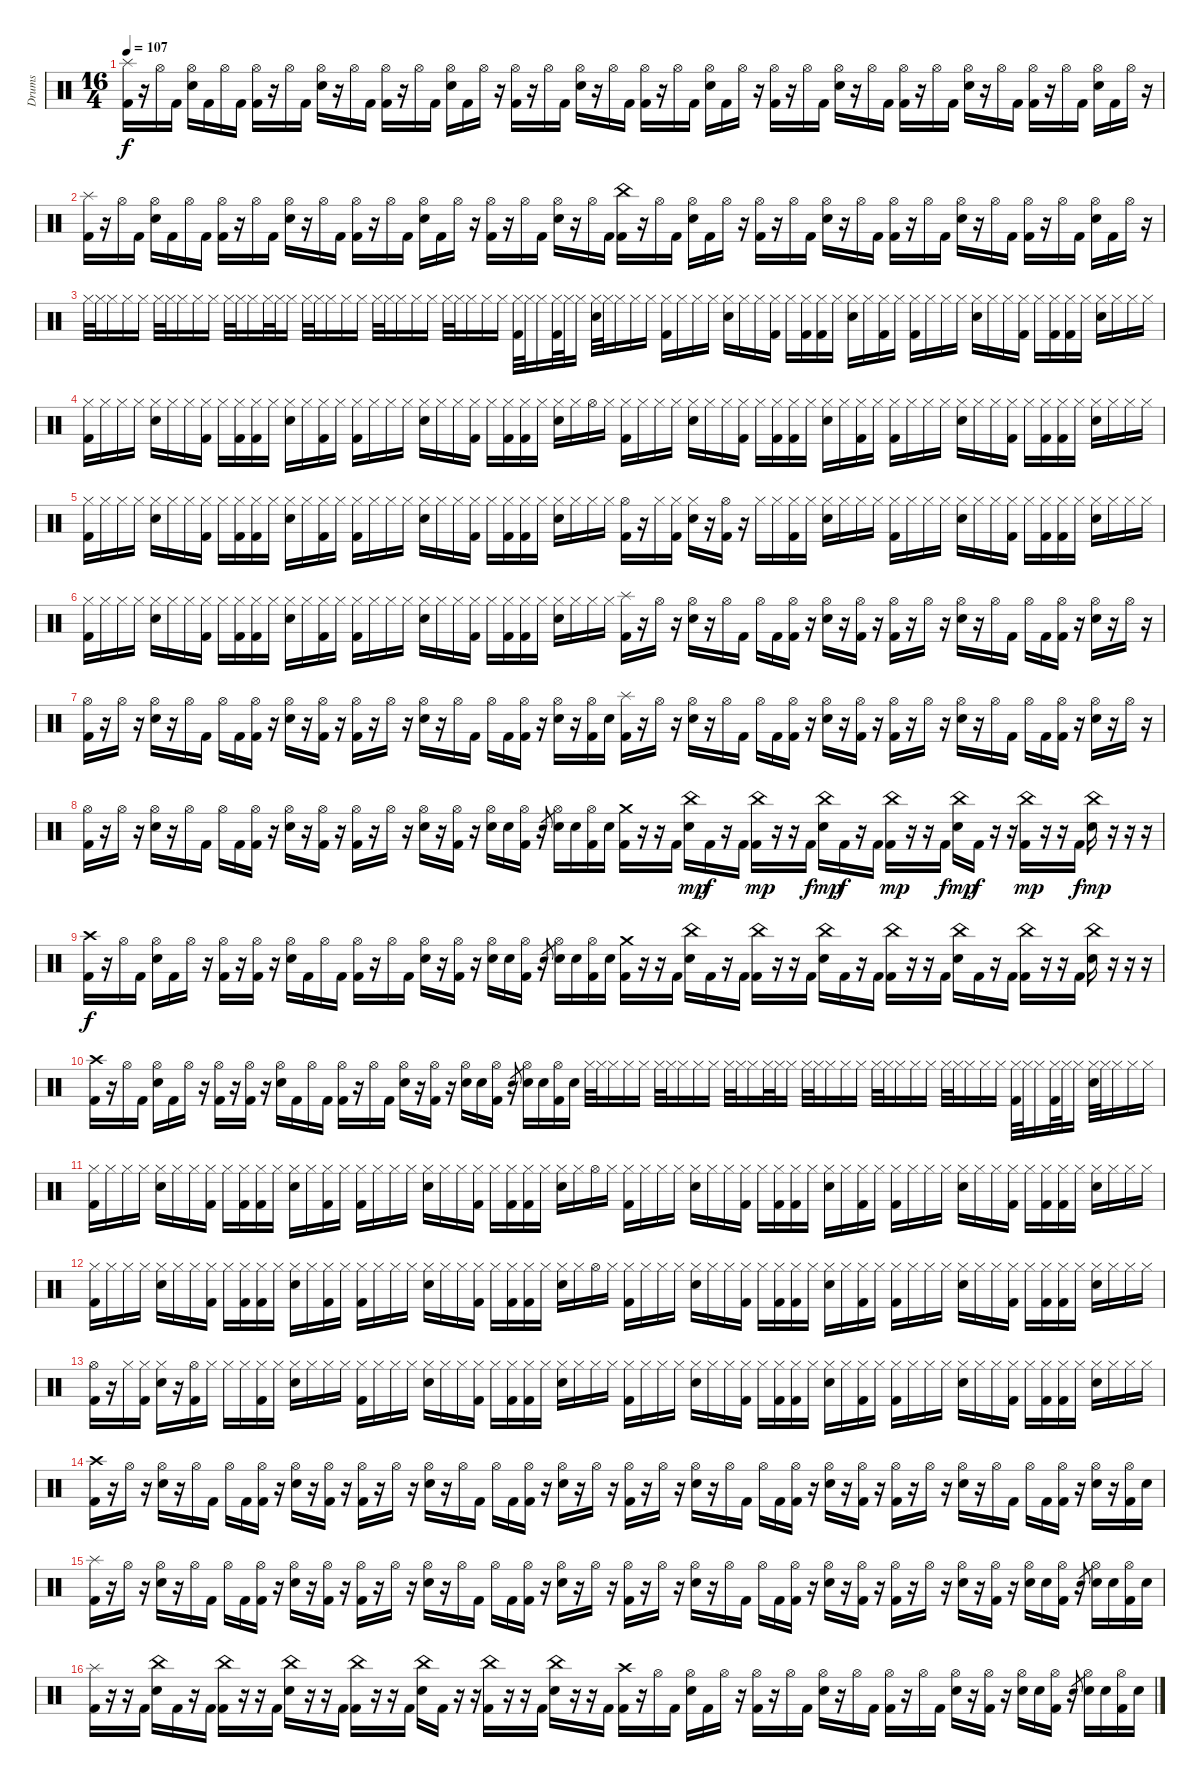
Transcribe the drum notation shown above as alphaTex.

\track ("Drums" "Drums") {instrument percussion}
\staff {score}
\articulation defaults
\ts (16 4)
\tempo 107
\clef neutral
\ks c
("Splash (hit)" "Kick (hit) 2").16{dy f} r.16 "Hi-Hat (open)".16 "Kick (hit) 2".16 ("Hi-Hat (open)" "Electric Snare (hit)").16 "Kick (hit) 2".16 "Hi-Hat (open)".16 "Kick (hit) 2".16 ("Hi-Hat (open)" "Kick (hit) 2").16 r.16 "Hi-Hat (open)".16 "Kick (hit) 2".16 ("Hi-Hat (open)" "Electric Snare (hit)").16 r.16 "Hi-Hat (open)".16 "Kick (hit) 2".16 ("Hi-Hat (open)" "Kick (hit) 2").16 r.16 "Hi-Hat (open)".16 "Kick (hit) 2".16 ("Hi-Hat (open)" "Electric Snare (hit)").16 "Kick (hit) 2".16 "Hi-Hat (open)".16 r.16 ("Hi-Hat (open)" "Kick (hit) 2").16 r.16 "Hi-Hat (open)".16 "Kick (hit) 2".16 ("Hi-Hat (open)" "Electric Snare (hit)").16 r.16 "Hi-Hat (open)".16 "Kick (hit) 2".16 ("Hi-Hat (open)" "Kick (hit) 2").16 r.16 "Hi-Hat (open)".16 "Kick (hit) 2".16 ("Hi-Hat (open)" "Electric Snare (hit)").16 "Kick (hit) 2".16 "Hi-Hat (open)".16 r.16 ("Hi-Hat (open)" "Kick (hit) 2").16 r.16 "Hi-Hat (open)".16 "Kick (hit) 2".16 ("Hi-Hat (open)" "Electric Snare (hit)").16 r.16 "Hi-Hat (open)".16 "Kick (hit) 2".16 ("Hi-Hat (open)" "Kick (hit) 2").16 r.16 "Hi-Hat (open)".16 "Kick (hit) 2".16 ("Hi-Hat (open)" "Electric Snare (hit)").16 r.16 "Hi-Hat (open)".16 "Kick (hit) 2".16 ("Hi-Hat (open)" "Kick (hit) 2").16 r.16 "Hi-Hat (open)".16 "Kick (hit) 2".16 ("Hi-Hat (open)" "Electric Snare (hit)").16 "Kick (hit) 2".16 "Hi-Hat (open)".16 r.16 |
("Splash (hit)" "Kick (hit) 2").16 r.16 "Hi-Hat (open)".16 "Kick (hit) 2".16 ("Hi-Hat (open)" "Electric Snare (hit)").16 "Kick (hit) 2".16 "Hi-Hat (open)".16 "Kick (hit) 2".16 ("Hi-Hat (open)" "Kick (hit) 2").16 r.16 "Hi-Hat (open)".16 "Kick (hit) 2".16 ("Hi-Hat (open)" "Electric Snare (hit)").16 r.16 "Hi-Hat (open)".16 "Kick (hit) 2".16 ("Hi-Hat (open)" "Kick (hit) 2").16 r.16 "Hi-Hat (open)".16 "Kick (hit) 2".16 ("Hi-Hat (open)" "Electric Snare (hit)").16 "Kick (hit) 2".16 "Hi-Hat (open)".16 r.16 ("Hi-Hat (open)" "Kick (hit) 2").16 r.16 "Hi-Hat (open)".16 "Kick (hit) 2".16 ("Hi-Hat (open)" "Electric Snare (hit)").16 r.16 "Hi-Hat (open)".16 "Kick (hit) 2".16 ("China (hit)" "Kick (hit) 2").16 r.16 "Hi-Hat (open)".16 "Kick (hit) 2".16 ("Hi-Hat (open)" "Electric Snare (hit)").16 "Kick (hit) 2".16 "Hi-Hat (open)".16 r.16 ("Hi-Hat (open)" "Kick (hit) 2").16 r.16 "Hi-Hat (open)".16 "Kick (hit) 2".16 ("Hi-Hat (open)" "Electric Snare (hit)").16 r.16 "Hi-Hat (open)".16 "Kick (hit) 2".16 ("Hi-Hat (open)" "Kick (hit) 2").16 r.16 "Hi-Hat (open)".16 "Kick (hit) 2".16 ("Hi-Hat (open)" "Electric Snare (hit)").16 r.16 "Hi-Hat (open)".16 "Kick (hit) 2".16 ("Hi-Hat (open)" "Kick (hit) 2").16 r.16 "Hi-Hat (open)".16 "Kick (hit) 2".16 ("Hi-Hat (open)" "Electric Snare (hit)").16 "Kick (hit) 2".16 "Hi-Hat (open)".16 r.16 |
"Hi-Hat (closed)".32 "Hi-Hat (closed)".32 "Hi-Hat (closed)".16 "Hi-Hat (closed)".16 "Hi-Hat (closed)".16 "Hi-Hat (closed)".32 "Hi-Hat (closed)".32 "Hi-Hat (closed)".16 "Hi-Hat (closed)".16 "Hi-Hat (closed)".16 "Hi-Hat (closed)".32 "Hi-Hat (closed)".32 "Hi-Hat (closed)".16 "Hi-Hat (closed)".32 "Hi-Hat (closed)".32 "Hi-Hat (closed)".16 "Hi-Hat (closed)".32 "Hi-Hat (closed)".32 "Hi-Hat (closed)".16 "Hi-Hat (closed)".16 "Hi-Hat (closed)".16 "Hi-Hat (closed)".32 "Hi-Hat (closed)".32 "Hi-Hat (closed)".16 "Hi-Hat (closed)".16 "Hi-Hat (closed)".16 "Hi-Hat (closed)".32 "Hi-Hat (closed)".32 "Hi-Hat (closed)".16 "Hi-Hat (closed)".16 "Hi-Hat (closed)".16 ("Hi-Hat (closed)" "Kick (hit) 2").32 "Hi-Hat (closed)".32 "Hi-Hat (closed)".16 ("Hi-Hat (closed)" "Kick (hit) 2").32 "Hi-Hat (closed)".32 "Hi-Hat (closed)".16 ("Hi-Hat (closed)" "Electric Snare (hit)").32 "Hi-Hat (closed)".32 "Hi-Hat (closed)".16 "Hi-Hat (closed)".16 "Hi-Hat (closed)".16 ("Hi-Hat (closed)" "Kick (hit) 2").16 "Hi-Hat (closed)".16 "Hi-Hat (closed)".16 "Hi-Hat (closed)".16 ("Hi-Hat (closed)" "Electric Snare (hit)").16 "Hi-Hat (closed)".16 "Hi-Hat (closed)".16 ("Hi-Hat (closed)" "Kick (hit) 2").16 "Hi-Hat (closed)".16 ("Hi-Hat (closed)" "Kick (hit) 2").16 ("Hi-Hat (closed)" "Kick (hit) 2").16 "Hi-Hat (closed)".16 ("Hi-Hat (closed)" "Electric Snare (hit)").16 "Hi-Hat (closed)".16 ("Hi-Hat (closed)" "Kick (hit) 2").16 "Hi-Hat (closed)".16 ("Hi-Hat (closed)" "Kick (hit) 2").16 "Hi-Hat (closed)".16 "Hi-Hat (closed)".16 "Hi-Hat (closed)".16 ("Hi-Hat (closed)" "Electric Snare (hit)").16 "Hi-Hat (closed)".16 "Hi-Hat (closed)".16 ("Hi-Hat (closed)" "Kick (hit) 2").16 "Hi-Hat (closed)".16 ("Hi-Hat (closed)" "Kick (hit) 2").16 ("Hi-Hat (closed)" "Kick (hit) 2").16 "Hi-Hat (closed)".16 ("Hi-Hat (closed)" "Electric Snare (hit)").16 "Hi-Hat (closed)".16 "Hi-Hat (closed)".16 "Hi-Hat (closed)".16 |
("Hi-Hat (closed)" "Kick (hit) 2").16 "Hi-Hat (closed)".16 "Hi-Hat (closed)".16 "Hi-Hat (closed)".16 ("Hi-Hat (closed)" "Electric Snare (hit)").16 "Hi-Hat (closed)".16 "Hi-Hat (closed)".16 ("Hi-Hat (closed)" "Kick (hit) 2").16 "Hi-Hat (closed)".16 ("Hi-Hat (closed)" "Kick (hit) 2").16 ("Hi-Hat (closed)" "Kick (hit) 2").16 "Hi-Hat (closed)".16 ("Hi-Hat (closed)" "Electric Snare (hit)").16 "Hi-Hat (closed)".16 ("Hi-Hat (closed)" "Kick (hit) 2").16 "Hi-Hat (closed)".16 ("Hi-Hat (closed)" "Kick (hit) 2").16 "Hi-Hat (closed)".16 "Hi-Hat (closed)".16 "Hi-Hat (closed)".16 ("Hi-Hat (closed)" "Electric Snare (hit)").16 "Hi-Hat (closed)".16 "Hi-Hat (closed)".16 ("Hi-Hat (closed)" "Kick (hit) 2").16 "Hi-Hat (closed)".16 ("Hi-Hat (closed)" "Kick (hit) 2").16 ("Hi-Hat (closed)" "Kick (hit) 2").16 "Hi-Hat (closed)".16 ("Hi-Hat (closed)" "Electric Snare (hit)").16 "Hi-Hat (closed)".16 "Hi-Hat (open)".16 "Hi-Hat (closed)".16 ("Hi-Hat (closed)" "Kick (hit) 2").16 "Hi-Hat (closed)".16 "Hi-Hat (closed)".16 "Hi-Hat (closed)".16 ("Hi-Hat (closed)" "Electric Snare (hit)").16 "Hi-Hat (closed)".16 "Hi-Hat (closed)".16 ("Hi-Hat (closed)" "Kick (hit) 2").16 "Hi-Hat (closed)".16 ("Hi-Hat (closed)" "Kick (hit) 2").16 ("Hi-Hat (closed)" "Kick (hit) 2").16 "Hi-Hat (closed)".16 ("Hi-Hat (closed)" "Electric Snare (hit)").16 "Hi-Hat (closed)".16 ("Hi-Hat (closed)" "Kick (hit) 2").16 "Hi-Hat (closed)".16 ("Hi-Hat (closed)" "Kick (hit) 2").16 "Hi-Hat (closed)".16 "Hi-Hat (closed)".16 "Hi-Hat (closed)".16 ("Hi-Hat (closed)" "Electric Snare (hit)").16 "Hi-Hat (closed)".16 "Hi-Hat (closed)".16 ("Hi-Hat (closed)" "Kick (hit) 2").16 "Hi-Hat (closed)".16 ("Hi-Hat (closed)" "Kick (hit) 2").16 ("Hi-Hat (closed)" "Kick (hit) 2").16 "Hi-Hat (closed)".16 ("Hi-Hat (closed)" "Electric Snare (hit)").16 "Hi-Hat (closed)".16 "Hi-Hat (closed)".16 "Hi-Hat (closed)".16 |
("Hi-Hat (closed)" "Kick (hit) 2").16 "Hi-Hat (closed)".16 "Hi-Hat (closed)".16 "Hi-Hat (closed)".16 ("Hi-Hat (closed)" "Electric Snare (hit)").16 "Hi-Hat (closed)".16 "Hi-Hat (closed)".16 ("Hi-Hat (closed)" "Kick (hit) 2").16 "Hi-Hat (closed)".16 ("Hi-Hat (closed)" "Kick (hit) 2").16 ("Hi-Hat (closed)" "Kick (hit) 2").16 "Hi-Hat (closed)".16 ("Hi-Hat (closed)" "Electric Snare (hit)").16 "Hi-Hat (closed)".16 ("Hi-Hat (closed)" "Kick (hit) 2").16 "Hi-Hat (closed)".16 ("Hi-Hat (closed)" "Kick (hit) 2").16 "Hi-Hat (closed)".16 "Hi-Hat (closed)".16 "Hi-Hat (closed)".16 ("Hi-Hat (closed)" "Electric Snare (hit)").16 "Hi-Hat (closed)".16 "Hi-Hat (closed)".16 ("Hi-Hat (closed)" "Kick (hit) 2").16 "Hi-Hat (closed)".16 ("Hi-Hat (closed)" "Kick (hit) 2").16 ("Hi-Hat (closed)" "Kick (hit) 2").16 "Hi-Hat (closed)".16 ("Hi-Hat (closed)" "Electric Snare (hit)").16 "Hi-Hat (closed)".16 "Hi-Hat (closed)".16 "Hi-Hat (closed)".16 ("Hi-Hat (open)" "Kick (hit) 2").16 r.16 "Hi-Hat (closed)".16 ("Hi-Hat (closed)" "Kick (hit) 2").16 ("Hi-Hat (closed)" "Electric Snare (hit)").16 r.16 ("Hi-Hat (open)" "Kick (hit) 2").16 r.16 "Hi-Hat (closed)".16 "Hi-Hat (closed)".16 ("Hi-Hat (closed)" "Kick (hit) 2").16 "Hi-Hat (closed)".16 ("Hi-Hat (closed)" "Electric Snare (hit)").16 "Hi-Hat (closed)".16 "Hi-Hat (closed)".16 "Hi-Hat (closed)".16 ("Hi-Hat (closed)" "Kick (hit) 2").16 "Hi-Hat (closed)".16 "Hi-Hat (closed)".16 "Hi-Hat (closed)".16 ("Hi-Hat (closed)" "Electric Snare (hit)").16 "Hi-Hat (closed)".16 "Hi-Hat (closed)".16 ("Hi-Hat (closed)" "Kick (hit) 2").16 "Hi-Hat (closed)".16 ("Hi-Hat (closed)" "Kick (hit) 2").16 ("Hi-Hat (closed)" "Kick (hit) 2").16 "Hi-Hat (closed)".16 ("Hi-Hat (closed)" "Electric Snare (hit)").16 "Hi-Hat (closed)".16 "Hi-Hat (closed)".16 "Hi-Hat (closed)".16 |
("Hi-Hat (closed)" "Kick (hit) 2").16 "Hi-Hat (closed)".16 "Hi-Hat (closed)".16 "Hi-Hat (closed)".16 ("Hi-Hat (closed)" "Electric Snare (hit)").16 "Hi-Hat (closed)".16 "Hi-Hat (closed)".16 ("Hi-Hat (closed)" "Kick (hit) 2").16 "Hi-Hat (closed)".16 ("Hi-Hat (closed)" "Kick (hit) 2").16 ("Hi-Hat (closed)" "Kick (hit) 2").16 "Hi-Hat (closed)".16 ("Hi-Hat (closed)" "Electric Snare (hit)").16 "Hi-Hat (closed)".16 ("Hi-Hat (closed)" "Kick (hit) 2").16 "Hi-Hat (closed)".16 ("Hi-Hat (closed)" "Kick (hit) 2").16 "Hi-Hat (closed)".16 "Hi-Hat (closed)".16 "Hi-Hat (closed)".16 ("Hi-Hat (closed)" "Electric Snare (hit)").16 "Hi-Hat (closed)".16 "Hi-Hat (closed)".16 ("Hi-Hat (closed)" "Kick (hit) 2").16 "Hi-Hat (closed)".16 ("Hi-Hat (closed)" "Kick (hit) 2").16 ("Hi-Hat (closed)" "Kick (hit) 2").16 "Hi-Hat (closed)".16 ("Hi-Hat (closed)" "Electric Snare (hit)").16 "Hi-Hat (closed)".16 "Hi-Hat (closed)".16 "Hi-Hat (closed)".16 ("Splash (hit)" "Kick (hit) 2").16 r.16 "Hi-Hat (open)".16 r.16 ("Hi-Hat (open)" "Electric Snare (hit)").16 r.16 "Hi-Hat (open)".16 "Kick (hit) 2".16 "Hi-Hat (open)".16 "Kick (hit) 2".16 ("Hi-Hat (open)" "Kick (hit) 2").16 r.16 ("Hi-Hat (open)" "Electric Snare (hit)").16 r.16 ("Hi-Hat (open)" "Kick (hit) 2").16 r.16 ("Hi-Hat (open)" "Kick (hit) 2").16 r.16 "Hi-Hat (open)".16 r.16 ("Hi-Hat (open)" "Electric Snare (hit)").16 r.16 "Hi-Hat (open)".16 "Kick (hit) 2".16 "Hi-Hat (open)".16 "Kick (hit) 2".16 ("Hi-Hat (open)" "Kick (hit) 2").16 r.16 ("Hi-Hat (open)" "Electric Snare (hit)").16 r.16 "Hi-Hat (open)".16 r.16 |
("Hi-Hat (open)" "Kick (hit) 2").16 r.16 "Hi-Hat (open)".16 r.16 ("Hi-Hat (open)" "Electric Snare (hit)").16 r.16 "Hi-Hat (open)".16 "Kick (hit) 2".16 "Hi-Hat (open)".16 "Kick (hit) 2".16 ("Hi-Hat (open)" "Kick (hit) 2").16 r.16 ("Hi-Hat (open)" "Electric Snare (hit)").16 r.16 ("Hi-Hat (open)" "Kick (hit) 2").16 r.16 ("Hi-Hat (open)" "Kick (hit) 2").16 r.16 "Hi-Hat (open)".16 r.16 ("Hi-Hat (open)" "Electric Snare (hit)").16 r.16 "Hi-Hat (open)".16 "Kick (hit) 2".16 "Hi-Hat (open)".16 "Kick (hit) 2".16 ("Hi-Hat (open)" "Kick (hit) 2").16 r.16 ("Hi-Hat (open)" "Electric Snare (hit)").16 r.16 ("Hi-Hat (open)" "Kick (hit) 2").16 "Electric Snare (hit)".16 ("Splash (hit)" "Kick (hit) 2").16 r.16 "Hi-Hat (open)".16 r.16 ("Hi-Hat (open)" "Electric Snare (hit)").16 r.16 "Hi-Hat (open)".16 "Kick (hit) 2".16 "Hi-Hat (open)".16 "Kick (hit) 2".16 ("Hi-Hat (open)" "Kick (hit) 2").16 r.16 ("Hi-Hat (open)" "Electric Snare (hit)").16 r.16 ("Hi-Hat (open)" "Kick (hit) 2").16 r.16 ("Hi-Hat (open)" "Kick (hit) 2").16 r.16 "Hi-Hat (open)".16 r.16 ("Hi-Hat (open)" "Electric Snare (hit)").16 r.16 "Hi-Hat (open)".16 "Kick (hit) 2".16 "Hi-Hat (open)".16 "Kick (hit) 2".16 ("Hi-Hat (open)" "Kick (hit) 2").16 r.16 ("Hi-Hat (open)" "Electric Snare (hit)").16 r.16 "Hi-Hat (open)".16 r.16 |
("Hi-Hat (open)" "Kick (hit) 2").16 r.16 "Hi-Hat (open)".16 r.16 ("Hi-Hat (open)" "Electric Snare (hit)").16 r.16 "Hi-Hat (open)".16 "Kick (hit) 2".16 "Hi-Hat (open)".16 "Kick (hit) 2".16 ("Hi-Hat (open)" "Kick (hit) 2").16 r.16 ("Hi-Hat (open)" "Electric Snare (hit)").16 r.16 ("Hi-Hat (open)" "Kick (hit) 2").16 r.16 ("Hi-Hat (open)" "Kick (hit) 2").16 r.16 "Hi-Hat (open)".16 r.16 ("Hi-Hat (open)" "Electric Snare (hit)").16 r.16 ("Hi-Hat (open)" "Kick (hit) 2").16 r.16 ("Hi-Hat (open)" "Electric Snare (hit)").16 "Electric Snare (hit)".16 ("Hi-Hat (open)" "Kick (hit) 2").16 r.16 "Electric Snare (hit)".8{gr} ("Hi-Hat (open)" "Electric Snare (hit)").16 "Electric Snare (hit)".16 ("Hi-Hat (open)" "Kick (hit) 2").16 "Electric Snare (hit)".16 ("Crash medium (hit)" "Kick (hit) 2").16 r.16 r.16 "Kick (hit) 2".16 ("China (hit)" "Electric Snare (hit)").16{dy mp} "Kick (hit) 2".16{dy f} r.16 "Kick (hit) 2".16 ("China (hit)" "Kick (hit) 2").16{dy mp} r.16 r.16 "Kick (hit) 2".16{dy f} ("China (hit)" "Electric Snare (hit)").16{dy mp} "Kick (hit) 2".16{dy f} r.16 "Kick (hit) 2".16 ("China (hit)" "Kick (hit) 2").16{dy mp} r.16 r.16 "Kick (hit) 2".16{dy f} ("China (hit)" "Electric Snare (hit)").16{dy mp} "Kick (hit) 2".16{dy f} r.16 r.16 ("China (hit)" "Kick (hit) 2").16{dy mp} r.16 r.16 "Kick (hit) 2".16{dy f} ("China (hit)" "Electric Snare (hit)").16{dy mp} r.16 r.16 r.16 |
("Crash high (hit)" "Kick (hit) 2").16{dy f} r.16 "Hi-Hat (open)".16 "Kick (hit) 2".16 ("Hi-Hat (open)" "Electric Snare (hit)").16 "Kick (hit) 2".16 "Hi-Hat (open)".16 r.16 ("Hi-Hat (open)" "Kick (hit) 2").16 r.16 ("Hi-Hat (open)" "Kick (hit) 2").16 r.16 ("Hi-Hat (open)" "Electric Snare (hit)").16 "Kick (hit) 2".16 "Hi-Hat (open)".16 "Kick (hit) 2".16 ("Hi-Hat (open)" "Kick (hit) 2").16 r.16 "Hi-Hat (open)".16 "Kick (hit) 2".16 ("Hi-Hat (open)" "Electric Snare (hit)").16 r.16 ("Hi-Hat (open)" "Kick (hit) 2").16 r.16 ("Hi-Hat (open)" "Electric Snare (hit)").16 "Electric Snare (hit)".16 ("Hi-Hat (open)" "Kick (hit) 2").16 r.16 "Electric Snare (hit)".8{gr} ("Hi-Hat (open)" "Electric Snare (hit)").16 "Electric Snare (hit)".16 ("Hi-Hat (open)" "Kick (hit) 2").16 "Electric Snare (hit)".16 ("Crash medium (hit)" "Kick (hit) 2").16 r.16 r.16 "Kick (hit) 2".16 ("China (hit)" "Electric Snare (hit)").16 "Kick (hit) 2".16 r.16 "Kick (hit) 2".16 ("China (hit)" "Kick (hit) 2").16 r.16 r.16 "Kick (hit) 2".16 ("China (hit)" "Electric Snare (hit)").16 "Kick (hit) 2".16 r.16 "Kick (hit) 2".16 ("China (hit)" "Kick (hit) 2").16 r.16 r.16 "Kick (hit) 2".16 ("China (hit)" "Electric Snare (hit)").16 "Kick (hit) 2".16 r.16 "Kick (hit) 2".16 ("China (hit)" "Kick (hit) 2").16 r.16 r.16 "Kick (hit) 2".16 ("China (hit)" "Electric Snare (hit)").16 r.16 r.16 r.16 |
("Crash high (hit)" "Kick (hit) 2").16 r.16 "Hi-Hat (open)".16 "Kick (hit) 2".16 ("Hi-Hat (open)" "Electric Snare (hit)").16 "Kick (hit) 2".16 "Hi-Hat (open)".16 r.16 ("Hi-Hat (open)" "Kick (hit) 2").16 r.16 ("Hi-Hat (open)" "Kick (hit) 2").16 r.16 ("Hi-Hat (open)" "Electric Snare (hit)").16 "Kick (hit) 2".16 "Hi-Hat (open)".16 "Kick (hit) 2".16 ("Hi-Hat (open)" "Kick (hit) 2").16 r.16 "Hi-Hat (open)".16 "Kick (hit) 2".16 ("Hi-Hat (open)" "Electric Snare (hit)").16 r.16 ("Hi-Hat (open)" "Kick (hit) 2").16 r.16 ("Hi-Hat (open)" "Electric Snare (hit)").16 "Electric Snare (hit)".16 ("Hi-Hat (open)" "Kick (hit) 2").16 r.16 "Electric Snare (hit)".8{gr} ("Hi-Hat (open)" "Electric Snare (hit)").16 "Electric Snare (hit)".16 ("Hi-Hat (open)" "Kick (hit) 2").16 "Electric Snare (hit)".16 "Hi-Hat (closed)".32 "Hi-Hat (closed)".32 "Hi-Hat (closed)".16 "Hi-Hat (closed)".16 "Hi-Hat (closed)".16 "Hi-Hat (closed)".32 "Hi-Hat (closed)".32 "Hi-Hat (closed)".16 "Hi-Hat (closed)".16 "Hi-Hat (closed)".16 "Hi-Hat (closed)".32 "Hi-Hat (closed)".32 "Hi-Hat (closed)".16 "Hi-Hat (closed)".32 "Hi-Hat (closed)".32 "Hi-Hat (closed)".16 "Hi-Hat (closed)".32 "Hi-Hat (closed)".32 "Hi-Hat (closed)".16 "Hi-Hat (closed)".16 "Hi-Hat (closed)".16 "Hi-Hat (closed)".32 "Hi-Hat (closed)".32 "Hi-Hat (closed)".16 "Hi-Hat (closed)".16 "Hi-Hat (closed)".16 "Hi-Hat (closed)".32 "Hi-Hat (closed)".32 "Hi-Hat (closed)".16 "Hi-Hat (closed)".16 "Hi-Hat (closed)".16 ("Hi-Hat (closed)" "Kick (hit) 2").32 "Hi-Hat (closed)".32 "Hi-Hat (closed)".16 ("Hi-Hat (closed)" "Kick (hit) 2").32 "Hi-Hat (closed)".32 "Hi-Hat (closed)".16 ("Hi-Hat (closed)" "Electric Snare (hit)").32 "Hi-Hat (closed)".32 "Hi-Hat (closed)".16 "Hi-Hat (closed)".16 "Hi-Hat (closed)".16 |
("Hi-Hat (closed)" "Kick (hit) 2").16 "Hi-Hat (closed)".16 "Hi-Hat (closed)".16 "Hi-Hat (closed)".16 ("Hi-Hat (closed)" "Electric Snare (hit)").16 "Hi-Hat (closed)".16 "Hi-Hat (closed)".16 ("Hi-Hat (closed)" "Kick (hit) 2").16 "Hi-Hat (closed)".16 ("Hi-Hat (closed)" "Kick (hit) 2").16 ("Hi-Hat (closed)" "Kick (hit) 2").16 "Hi-Hat (closed)".16 ("Hi-Hat (closed)" "Electric Snare (hit)").16 "Hi-Hat (closed)".16 ("Hi-Hat (closed)" "Kick (hit) 2").16 "Hi-Hat (closed)".16 ("Hi-Hat (closed)" "Kick (hit) 2").16 "Hi-Hat (closed)".16 "Hi-Hat (closed)".16 "Hi-Hat (closed)".16 ("Hi-Hat (closed)" "Electric Snare (hit)").16 "Hi-Hat (closed)".16 "Hi-Hat (closed)".16 ("Hi-Hat (closed)" "Kick (hit) 2").16 "Hi-Hat (closed)".16 ("Hi-Hat (closed)" "Kick (hit) 2").16 ("Hi-Hat (closed)" "Kick (hit) 2").16 "Hi-Hat (closed)".16 ("Hi-Hat (closed)" "Electric Snare (hit)").16 "Hi-Hat (closed)".16 "Hi-Hat (open)".16 "Hi-Hat (closed)".16 ("Hi-Hat (closed)" "Kick (hit) 2").16 "Hi-Hat (closed)".16 "Hi-Hat (closed)".16 "Hi-Hat (closed)".16 ("Hi-Hat (closed)" "Electric Snare (hit)").16 "Hi-Hat (closed)".16 "Hi-Hat (closed)".16 ("Hi-Hat (closed)" "Kick (hit) 2").16 "Hi-Hat (closed)".16 ("Hi-Hat (closed)" "Kick (hit) 2").16 ("Hi-Hat (closed)" "Kick (hit) 2").16 "Hi-Hat (closed)".16 ("Hi-Hat (closed)" "Electric Snare (hit)").16 "Hi-Hat (closed)".16 ("Hi-Hat (closed)" "Kick (hit) 2").16 "Hi-Hat (closed)".16 ("Hi-Hat (closed)" "Kick (hit) 2").16 "Hi-Hat (closed)".16 "Hi-Hat (closed)".16 "Hi-Hat (closed)".16 ("Hi-Hat (closed)" "Electric Snare (hit)").16 "Hi-Hat (closed)".16 "Hi-Hat (closed)".16 ("Hi-Hat (closed)" "Kick (hit) 2").16 "Hi-Hat (closed)".16 ("Hi-Hat (closed)" "Kick (hit) 2").16 ("Hi-Hat (closed)" "Kick (hit) 2").16 "Hi-Hat (closed)".16 ("Hi-Hat (closed)" "Electric Snare (hit)").16 "Hi-Hat (closed)".16 "Hi-Hat (closed)".16 "Hi-Hat (closed)".16 |
("Hi-Hat (closed)" "Kick (hit) 2").16 "Hi-Hat (closed)".16 "Hi-Hat (closed)".16 "Hi-Hat (closed)".16 ("Hi-Hat (closed)" "Electric Snare (hit)").16 "Hi-Hat (closed)".16 "Hi-Hat (closed)".16 ("Hi-Hat (closed)" "Kick (hit) 2").16 "Hi-Hat (closed)".16 ("Hi-Hat (closed)" "Kick (hit) 2").16 ("Hi-Hat (closed)" "Kick (hit) 2").16 "Hi-Hat (closed)".16 ("Hi-Hat (closed)" "Electric Snare (hit)").16 "Hi-Hat (closed)".16 ("Hi-Hat (closed)" "Kick (hit) 2").16 "Hi-Hat (closed)".16 ("Hi-Hat (closed)" "Kick (hit) 2").16 "Hi-Hat (closed)".16 "Hi-Hat (closed)".16 "Hi-Hat (closed)".16 ("Hi-Hat (closed)" "Electric Snare (hit)").16 "Hi-Hat (closed)".16 "Hi-Hat (closed)".16 ("Hi-Hat (closed)" "Kick (hit) 2").16 "Hi-Hat (closed)".16 ("Hi-Hat (closed)" "Kick (hit) 2").16 ("Hi-Hat (closed)" "Kick (hit) 2").16 "Hi-Hat (closed)".16 ("Hi-Hat (closed)" "Electric Snare (hit)").16 "Hi-Hat (closed)".16 "Hi-Hat (open)".16 "Hi-Hat (closed)".16 ("Hi-Hat (closed)" "Kick (hit) 2").16 "Hi-Hat (closed)".16 "Hi-Hat (closed)".16 "Hi-Hat (closed)".16 ("Hi-Hat (closed)" "Electric Snare (hit)").16 "Hi-Hat (closed)".16 "Hi-Hat (closed)".16 ("Hi-Hat (closed)" "Kick (hit) 2").16 "Hi-Hat (closed)".16 ("Hi-Hat (closed)" "Kick (hit) 2").16 ("Hi-Hat (closed)" "Kick (hit) 2").16 "Hi-Hat (closed)".16 ("Hi-Hat (closed)" "Electric Snare (hit)").16 "Hi-Hat (closed)".16 ("Hi-Hat (closed)" "Kick (hit) 2").16 "Hi-Hat (closed)".16 ("Hi-Hat (closed)" "Kick (hit) 2").16 "Hi-Hat (closed)".16 "Hi-Hat (closed)".16 "Hi-Hat (closed)".16 ("Hi-Hat (closed)" "Electric Snare (hit)").16 "Hi-Hat (closed)".16 "Hi-Hat (closed)".16 ("Hi-Hat (closed)" "Kick (hit) 2").16 "Hi-Hat (closed)".16 ("Hi-Hat (closed)" "Kick (hit) 2").16 ("Hi-Hat (closed)" "Kick (hit) 2").16 "Hi-Hat (closed)".16 ("Hi-Hat (closed)" "Electric Snare (hit)").16 "Hi-Hat (closed)".16 "Hi-Hat (closed)".16 "Hi-Hat (closed)".16 |
("Hi-Hat (open)" "Kick (hit) 2").16 r.16 "Hi-Hat (closed)".16 ("Hi-Hat (closed)" "Kick (hit) 2").16 ("Hi-Hat (closed)" "Electric Snare (hit)").16 r.16 ("Hi-Hat (open)" "Kick (hit) 2").16 "Hi-Hat (closed)".16 "Hi-Hat (closed)".16 "Hi-Hat (closed)".16 ("Hi-Hat (closed)" "Kick (hit) 2").16 "Hi-Hat (closed)".16 ("Hi-Hat (closed)" "Electric Snare (hit)").16 "Hi-Hat (closed)".16 "Hi-Hat (closed)".16 "Hi-Hat (closed)".16 ("Hi-Hat (closed)" "Kick (hit) 2").16 "Hi-Hat (closed)".16 "Hi-Hat (closed)".16 "Hi-Hat (closed)".16 ("Hi-Hat (closed)" "Electric Snare (hit)").16 "Hi-Hat (closed)".16 "Hi-Hat (closed)".16 ("Hi-Hat (closed)" "Kick (hit) 2").16 "Hi-Hat (closed)".16 ("Hi-Hat (closed)" "Kick (hit) 2").16 ("Hi-Hat (closed)" "Kick (hit) 2").16 "Hi-Hat (closed)".16 ("Hi-Hat (closed)" "Electric Snare (hit)").16 "Hi-Hat (closed)".16 "Hi-Hat (closed)".16 "Hi-Hat (closed)".16 ("Hi-Hat (closed)" "Kick (hit) 2").16 "Hi-Hat (closed)".16 "Hi-Hat (closed)".16 "Hi-Hat (closed)".16 ("Hi-Hat (closed)" "Electric Snare (hit)").16 "Hi-Hat (closed)".16 "Hi-Hat (closed)".16 ("Hi-Hat (closed)" "Kick (hit) 2").16 "Hi-Hat (closed)".16 ("Hi-Hat (closed)" "Kick (hit) 2").16 ("Hi-Hat (closed)" "Kick (hit) 2").16 "Hi-Hat (closed)".16 ("Hi-Hat (closed)" "Electric Snare (hit)").16 "Hi-Hat (closed)".16 ("Hi-Hat (closed)" "Kick (hit) 2").16 "Hi-Hat (closed)".16 ("Hi-Hat (closed)" "Kick (hit) 2").16 "Hi-Hat (closed)".16 "Hi-Hat (closed)".16 "Hi-Hat (closed)".16 ("Hi-Hat (closed)" "Electric Snare (hit)").16 "Hi-Hat (closed)".16 "Hi-Hat (closed)".16 ("Hi-Hat (closed)" "Kick (hit) 2").16 "Hi-Hat (closed)".16 ("Hi-Hat (closed)" "Kick (hit) 2").16 ("Hi-Hat (closed)" "Kick (hit) 2").16 "Hi-Hat (closed)".16 ("Hi-Hat (closed)" "Electric Snare (hit)").16 "Hi-Hat (closed)".16 "Hi-Hat (closed)".16 "Hi-Hat (closed)".16 |
("Crash high (hit)" "Kick (hit) 2").16 r.16 "Hi-Hat (open)".16 r.16 ("Hi-Hat (open)" "Electric Snare (hit)").16 r.16 "Hi-Hat (open)".16 "Kick (hit) 2".16 "Hi-Hat (open)".16 "Kick (hit) 2".16 ("Hi-Hat (open)" "Kick (hit) 2").16 r.16 ("Hi-Hat (open)" "Electric Snare (hit)").16 r.16 ("Hi-Hat (open)" "Kick (hit) 2").16 r.16 ("Hi-Hat (open)" "Kick (hit) 2").16 r.16 "Hi-Hat (open)".16 r.16 ("Hi-Hat (open)" "Electric Snare (hit)").16 r.16 "Hi-Hat (open)".16 "Kick (hit) 2".16 "Hi-Hat (open)".16 "Kick (hit) 2".16 ("Hi-Hat (open)" "Kick (hit) 2").16 r.16 ("Hi-Hat (open)" "Electric Snare (hit)").16 r.16 "Hi-Hat (open)".16 r.16 ("Hi-Hat (open)" "Kick (hit) 2").16 r.16 "Hi-Hat (open)".16 r.16 ("Hi-Hat (open)" "Electric Snare (hit)").16 r.16 "Hi-Hat (open)".16 "Kick (hit) 2".16 "Hi-Hat (open)".16 "Kick (hit) 2".16 ("Hi-Hat (open)" "Kick (hit) 2").16 r.16 ("Hi-Hat (open)" "Electric Snare (hit)").16 r.16 ("Hi-Hat (open)" "Kick (hit) 2").16 r.16 ("Hi-Hat (open)" "Kick (hit) 2").16 r.16 "Hi-Hat (open)".16 r.16 ("Hi-Hat (open)" "Electric Snare (hit)").16 r.16 "Hi-Hat (open)".16 "Kick (hit) 2".16 "Hi-Hat (open)".16 "Kick (hit) 2".16 ("Hi-Hat (open)" "Kick (hit) 2").16 r.16 ("Hi-Hat (open)" "Electric Snare (hit)").16 r.16 ("Hi-Hat (open)" "Kick (hit) 2").16 "Electric Snare (hit)".16 |
("Splash (hit)" "Kick (hit) 2").16 r.16 "Hi-Hat (open)".16 r.16 ("Hi-Hat (open)" "Electric Snare (hit)").16 r.16 "Hi-Hat (open)".16 "Kick (hit) 2".16 "Hi-Hat (open)".16 "Kick (hit) 2".16 ("Hi-Hat (open)" "Kick (hit) 2").16 r.16 ("Hi-Hat (open)" "Electric Snare (hit)").16 r.16 ("Hi-Hat (open)" "Kick (hit) 2").16 r.16 ("Hi-Hat (open)" "Kick (hit) 2").16 r.16 "Hi-Hat (open)".16 r.16 ("Hi-Hat (open)" "Electric Snare (hit)").16 r.16 "Hi-Hat (open)".16 "Kick (hit) 2".16 "Hi-Hat (open)".16 "Kick (hit) 2".16 ("Hi-Hat (open)" "Kick (hit) 2").16 r.16 ("Hi-Hat (open)" "Electric Snare (hit)").16 r.16 "Hi-Hat (open)".16 r.16 ("Hi-Hat (open)" "Kick (hit) 2").16 r.16 "Hi-Hat (open)".16 r.16 ("Hi-Hat (open)" "Electric Snare (hit)").16 r.16 "Hi-Hat (open)".16 "Kick (hit) 2".16 "Hi-Hat (open)".16 "Kick (hit) 2".16 ("Hi-Hat (open)" "Kick (hit) 2").16 r.16 ("Hi-Hat (open)" "Electric Snare (hit)").16 r.16 ("Hi-Hat (open)" "Kick (hit) 2").16 r.16 ("Hi-Hat (open)" "Kick (hit) 2").16 r.16 "Hi-Hat (open)".16 r.16 ("Hi-Hat (open)" "Electric Snare (hit)").16 r.16 ("Hi-Hat (open)" "Kick (hit) 2").16 r.16 ("Hi-Hat (open)" "Electric Snare (hit)").16 "Electric Snare (hit)".16 ("Hi-Hat (open)" "Kick (hit) 2").16 r.16 "Electric Snare (hit)".8{gr} ("Hi-Hat (open)" "Electric Snare (hit)").16 "Electric Snare (hit)".16 ("Hi-Hat (open)" "Kick (hit) 2").16 "Electric Snare (hit)".16 |
("Splash (hit)" "Kick (hit) 2").16 r.16 r.16 "Kick (hit) 2".16 ("China (hit)" "Electric Snare (hit)").16 "Kick (hit) 2".16 r.16 "Kick (hit) 2".16 ("China (hit)" "Kick (hit) 2").16 r.16 r.16 "Kick (hit) 2".16 ("China (hit)" "Electric Snare (hit)").16 r.16 r.16 "Kick (hit) 2".16 ("China (hit)" "Kick (hit) 2").16 r.16 r.16 "Kick (hit) 2".16 ("China (hit)" "Electric Snare (hit)").16 "Kick (hit) 2".16 r.16 r.16 ("China (hit)" "Kick (hit) 2").16 r.16 r.16 "Kick (hit) 2".16 ("China (hit)" "Electric Snare (hit)").16 r.16 r.16 "Kick (hit) 2".16 ("Crash high (hit)" "Kick (hit) 2").16 r.16 "Hi-Hat (open)".16 "Kick (hit) 2".16 ("Hi-Hat (open)" "Electric Snare (hit)").16 "Kick (hit) 2".16 "Hi-Hat (open)".16 r.16 ("Hi-Hat (open)" "Kick (hit) 2").16 r.16 "Hi-Hat (open)".16 "Kick (hit) 2".16 ("Hi-Hat (open)" "Electric Snare (hit)").16 r.16 "Hi-Hat (open)".16 "Kick (hit) 2".16 ("Hi-Hat (open)" "Kick (hit) 2").16 r.16 "Hi-Hat (open)".16 "Kick (hit) 2".16 ("Hi-Hat (open)" "Electric Snare (hit)").16 r.16 ("Hi-Hat (open)" "Kick (hit) 2").16 r.16 ("Hi-Hat (open)" "Electric Snare (hit)").16 "Electric Snare (hit)".16 ("Hi-Hat (open)" "Kick (hit) 2").16 r.16 "Electric Snare (hit)".8{gr} ("Hi-Hat (open)" "Electric Snare (hit)").16 "Electric Snare (hit)".16 ("Hi-Hat (open)" "Kick (hit) 2").16 "Electric Snare (hit)".16
